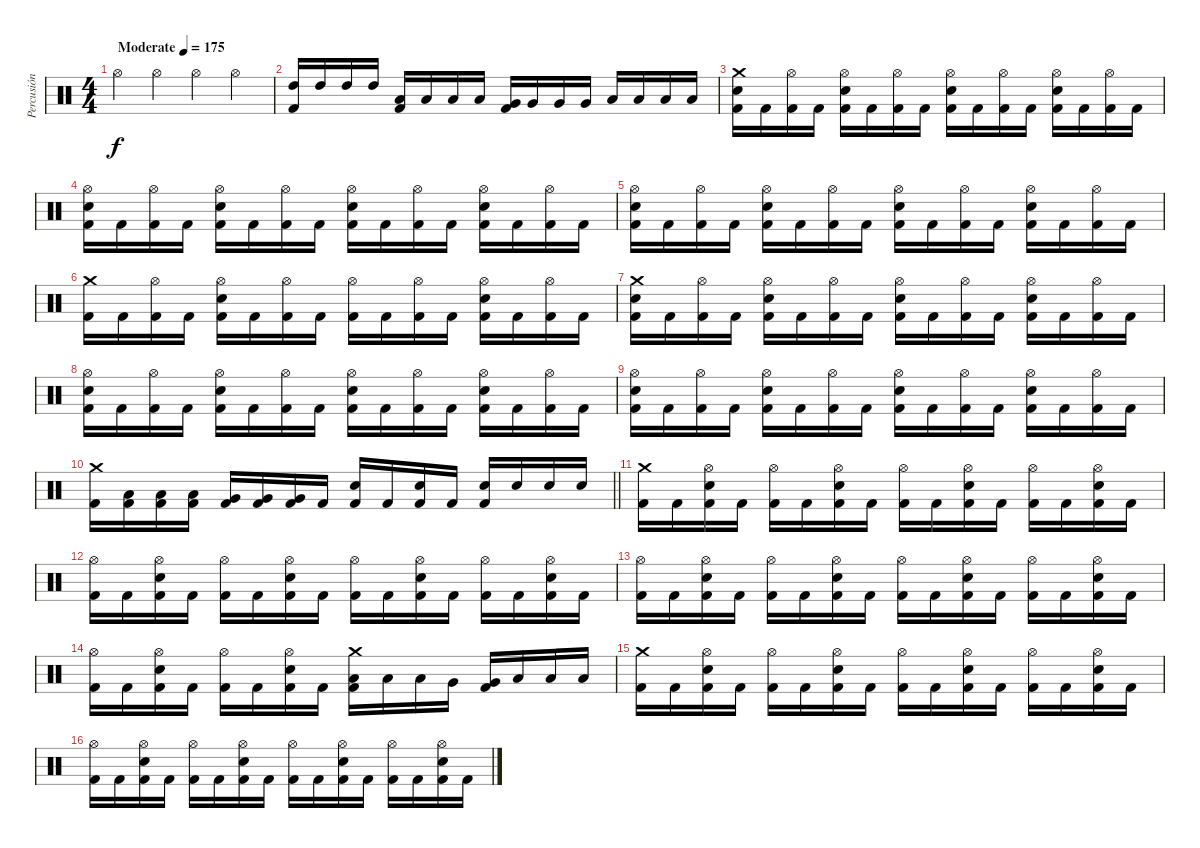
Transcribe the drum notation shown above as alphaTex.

\track ("Percusión" "Percusión") {instrument percussion}
\staff {score}
\articulation defaults
\ts (4 4)
\tempo (175 "Moderate")
\clef neutral
\ks c "Hi-Hat (open)".4{dy f} "Hi-Hat (open)".4 "Hi-Hat (open)".4 "Hi-Hat (open)".4
|
("High Tom (hit)" "Kick (hit) 2").16 "High Tom (hit)".16 "High Tom (hit)".16 "High Tom (hit)".16 ("Low Tom (hit)" "Kick (hit) 2").16 "Low Tom (hit)".16 "Low Tom (hit)".16 "Low Tom (hit)".16 ("Very Low Tom (hit)" "Kick (hit) 2").16 "Very Low Tom (hit)".16 "Very Low Tom (hit)".16 "Very Low Tom (hit)".16 "Low Floor Tom (hit)".16 "Low Floor Tom (hit)".16 "Low Floor Tom (hit)".16 "Low Floor Tom (hit)".16 |
("Crash medium (hit)" "Electric Snare (hit)" "Kick (hit) 2").16 "Kick (hit) 2".16 ("Hi-Hat (open)" "Kick (hit) 2").16 "Kick (hit) 2".16 ("Hi-Hat (open)" "Electric Snare (hit)" "Kick (hit) 2").16 "Kick (hit) 2".16 ("Hi-Hat (open)" "Kick (hit) 2").16 "Kick (hit) 2".16 ("Hi-Hat (open)" "Electric Snare (hit)" "Kick (hit) 2").16 "Kick (hit) 2".16 ("Hi-Hat (open)" "Kick (hit) 2").16 "Kick (hit) 2".16 ("Hi-Hat (open)" "Electric Snare (hit)" "Kick (hit) 2").16 "Kick (hit) 2".16 ("Hi-Hat (open)" "Kick (hit) 2").16 "Kick (hit) 2".16 |
("Hi-Hat (open)" "Electric Snare (hit)" "Kick (hit) 2").16 "Kick (hit) 2".16 ("Hi-Hat (open)" "Kick (hit) 2").16 "Kick (hit) 2".16 ("Hi-Hat (open)" "Electric Snare (hit)" "Kick (hit) 2").16 "Kick (hit) 2".16 ("Hi-Hat (open)" "Kick (hit) 2").16 "Kick (hit) 2".16 ("Hi-Hat (open)" "Electric Snare (hit)" "Kick (hit) 2").16 "Kick (hit) 2".16 ("Hi-Hat (open)" "Kick (hit) 2").16 "Kick (hit) 2".16 ("Hi-Hat (open)" "Electric Snare (hit)" "Kick (hit) 2").16 "Kick (hit) 2".16 ("Hi-Hat (open)" "Kick (hit) 2").16 "Kick (hit) 2".16 |
("Hi-Hat (open)" "Electric Snare (hit)" "Kick (hit) 2").16 "Kick (hit) 2".16 ("Hi-Hat (open)" "Kick (hit) 2").16 "Kick (hit) 2".16 ("Hi-Hat (open)" "Electric Snare (hit)" "Kick (hit) 2").16 "Kick (hit) 2".16 ("Hi-Hat (open)" "Kick (hit) 2").16 "Kick (hit) 2".16 ("Hi-Hat (open)" "Electric Snare (hit)" "Kick (hit) 2").16 "Kick (hit) 2".16 ("Hi-Hat (open)" "Kick (hit) 2").16 "Kick (hit) 2".16 ("Hi-Hat (open)" "Electric Snare (hit)" "Kick (hit) 2").16 "Kick (hit) 2".16 ("Hi-Hat (open)" "Kick (hit) 2").16 "Kick (hit) 2".16 |
("Crash medium (hit)" "Kick (hit) 2").16 "Kick (hit) 2".16 ("Hi-Hat (open)" "Kick (hit) 2").16 "Kick (hit) 2".16 ("Hi-Hat (open)" "Electric Snare (hit)" "Kick (hit) 2").16 "Kick (hit) 2".16 ("Hi-Hat (open)" "Kick (hit) 2").16 "Kick (hit) 2".16 ("Hi-Hat (open)" "Kick (hit) 2").16 "Kick (hit) 2".16 ("Hi-Hat (open)" "Kick (hit) 2").16 "Kick (hit) 2".16 ("Hi-Hat (open)" "Electric Snare (hit)" "Kick (hit) 2").16 "Kick (hit) 2".16 ("Hi-Hat (open)" "Kick (hit) 2").16 "Kick (hit) 2".16 |
("Crash medium (hit)" "Electric Snare (hit)" "Kick (hit) 2").16 "Kick (hit) 2".16 ("Hi-Hat (open)" "Kick (hit) 2").16 "Kick (hit) 2".16 ("Hi-Hat (open)" "Electric Snare (hit)" "Kick (hit) 2").16 "Kick (hit) 2".16 ("Hi-Hat (open)" "Kick (hit) 2").16 "Kick (hit) 2".16 ("Hi-Hat (open)" "Electric Snare (hit)" "Kick (hit) 2").16 "Kick (hit) 2".16 ("Hi-Hat (open)" "Kick (hit) 2").16 "Kick (hit) 2".16 ("Hi-Hat (open)" "Electric Snare (hit)" "Kick (hit) 2").16 "Kick (hit) 2".16 ("Hi-Hat (open)" "Kick (hit) 2").16 "Kick (hit) 2".16 |
("Hi-Hat (open)" "Electric Snare (hit)" "Kick (hit) 2").16 "Kick (hit) 2".16 ("Hi-Hat (open)" "Kick (hit) 2").16 "Kick (hit) 2".16 ("Hi-Hat (open)" "Electric Snare (hit)" "Kick (hit) 2").16 "Kick (hit) 2".16 ("Hi-Hat (open)" "Kick (hit) 2").16 "Kick (hit) 2".16 ("Hi-Hat (open)" "Electric Snare (hit)" "Kick (hit) 2").16 "Kick (hit) 2".16 ("Hi-Hat (open)" "Kick (hit) 2").16 "Kick (hit) 2".16 ("Hi-Hat (open)" "Electric Snare (hit)" "Kick (hit) 2").16 "Kick (hit) 2".16 ("Hi-Hat (open)" "Kick (hit) 2").16 "Kick (hit) 2".16 |
("Hi-Hat (open)" "Electric Snare (hit)" "Kick (hit) 2").16 "Kick (hit) 2".16 ("Hi-Hat (open)" "Kick (hit) 2").16 "Kick (hit) 2".16 ("Hi-Hat (open)" "Electric Snare (hit)" "Kick (hit) 2").16 "Kick (hit) 2".16 ("Hi-Hat (open)" "Kick (hit) 2").16 "Kick (hit) 2".16 ("Hi-Hat (open)" "Electric Snare (hit)" "Kick (hit) 2").16 "Kick (hit) 2".16 ("Hi-Hat (open)" "Kick (hit) 2").16 "Kick (hit) 2".16 ("Hi-Hat (open)" "Electric Snare (hit)" "Kick (hit) 2").16 "Kick (hit) 2".16 ("Hi-Hat (open)" "Kick (hit) 2").16 "Kick (hit) 2".16 |
\barLineRight lightlight
("Crash medium (hit)" "Kick (hit) 2").16 ("Low Tom (hit)" "Kick (hit) 2").16 ("Low Tom (hit)" "Kick (hit) 2").16 ("Low Tom (hit)" "Kick (hit) 2").16 ("Very Low Tom (hit)" "Kick (hit) 2").16 ("Very Low Tom (hit)" "Kick (hit) 2").16 ("Very Low Tom (hit)" "Kick (hit) 2").16 "Kick (hit) 2".16 ("Electric Snare (hit)" "Kick (hit) 2").16 "Kick (hit) 2".16 ("Electric Snare (hit)" "Kick (hit) 2").16 "Kick (hit) 2".16 ("Electric Snare (hit)" "Kick (hit) 2").16 "Electric Snare (hit)".16 "Electric Snare (hit)".16 "Electric Snare (hit)".16 |
("Crash medium (hit)" "Kick (hit) 2").16 "Kick (hit) 2".16 ("Hi-Hat (open)" "Electric Snare (hit)" "Kick (hit) 2").16 "Kick (hit) 2".16 ("Hi-Hat (open)" "Kick (hit) 2").16 "Kick (hit) 2".16 ("Hi-Hat (open)" "Electric Snare (hit)" "Kick (hit) 2").16 "Kick (hit) 2".16 ("Hi-Hat (open)" "Kick (hit) 2").16 "Kick (hit) 2".16 ("Hi-Hat (open)" "Electric Snare (hit)" "Kick (hit) 2").16 "Kick (hit) 2".16 ("Hi-Hat (open)" "Kick (hit) 2").16 "Kick (hit) 2".16 ("Hi-Hat (open)" "Electric Snare (hit)" "Kick (hit) 2").16 "Kick (hit) 2".16 |
("Hi-Hat (open)" "Kick (hit) 2").16 "Kick (hit) 2".16 ("Hi-Hat (open)" "Electric Snare (hit)" "Kick (hit) 2").16 "Kick (hit) 2".16 ("Hi-Hat (open)" "Kick (hit) 2").16 "Kick (hit) 2".16 ("Hi-Hat (open)" "Electric Snare (hit)" "Kick (hit) 2").16 "Kick (hit) 2".16 ("Hi-Hat (open)" "Kick (hit) 2").16 "Kick (hit) 2".16 ("Hi-Hat (open)" "Electric Snare (hit)" "Kick (hit) 2").16 "Kick (hit) 2".16 ("Hi-Hat (open)" "Kick (hit) 2").16 "Kick (hit) 2".16 ("Hi-Hat (open)" "Electric Snare (hit)" "Kick (hit) 2").16 "Kick (hit) 2".16 |
("Hi-Hat (open)" "Kick (hit) 2").16 "Kick (hit) 2".16 ("Hi-Hat (open)" "Electric Snare (hit)" "Kick (hit) 2").16 "Kick (hit) 2".16 ("Hi-Hat (open)" "Kick (hit) 2").16 "Kick (hit) 2".16 ("Hi-Hat (open)" "Electric Snare (hit)" "Kick (hit) 2").16 "Kick (hit) 2".16 ("Hi-Hat (open)" "Kick (hit) 2").16 "Kick (hit) 2".16 ("Hi-Hat (open)" "Electric Snare (hit)" "Kick (hit) 2").16 "Kick (hit) 2".16 ("Hi-Hat (open)" "Kick (hit) 2").16 "Kick (hit) 2".16 ("Hi-Hat (open)" "Electric Snare (hit)" "Kick (hit) 2").16 "Kick (hit) 2".16 |
("Hi-Hat (open)" "Kick (hit) 2").16 "Kick (hit) 2".16 ("Hi-Hat (open)" "Electric Snare (hit)" "Kick (hit) 2").16 "Kick (hit) 2".16 ("Hi-Hat (open)" "Kick (hit) 2").16 "Kick (hit) 2".16 ("Hi-Hat (open)" "Electric Snare (hit)" "Kick (hit) 2").16 "Kick (hit) 2".16 ("Crash medium (hit)" "Low Tom (hit)" "Kick (hit) 2").16 "Low Tom (hit)".16 "Low Tom (hit)".16 "Very Low Tom (hit)".16 ("Very Low Tom (hit)" "Kick (hit) 2").16 "Low Floor Tom (hit)".16 "Low Floor Tom (hit)".16 "Low Floor Tom (hit)".16 |
("Crash medium (hit)" "Kick (hit) 2").16 "Kick (hit) 2".16 ("Hi-Hat (open)" "Electric Snare (hit)" "Kick (hit) 2").16 "Kick (hit) 2".16 ("Hi-Hat (open)" "Kick (hit) 2").16 "Kick (hit) 2".16 ("Hi-Hat (open)" "Electric Snare (hit)" "Kick (hit) 2").16 "Kick (hit) 2".16 ("Hi-Hat (open)" "Kick (hit) 2").16 "Kick (hit) 2".16 ("Hi-Hat (open)" "Electric Snare (hit)" "Kick (hit) 2").16 "Kick (hit) 2".16 ("Hi-Hat (open)" "Kick (hit) 2").16 "Kick (hit) 2".16 ("Hi-Hat (open)" "Electric Snare (hit)" "Kick (hit) 2").16 "Kick (hit) 2".16 |
("Hi-Hat (open)" "Kick (hit) 2").16 "Kick (hit) 2".16 ("Hi-Hat (open)" "Electric Snare (hit)" "Kick (hit) 2").16 "Kick (hit) 2".16 ("Hi-Hat (open)" "Kick (hit) 2").16 "Kick (hit) 2".16 ("Hi-Hat (open)" "Electric Snare (hit)" "Kick (hit) 2").16 "Kick (hit) 2".16 ("Hi-Hat (open)" "Kick (hit) 2").16 "Kick (hit) 2".16 ("Hi-Hat (open)" "Electric Snare (hit)" "Kick (hit) 2").16 "Kick (hit) 2".16 ("Hi-Hat (open)" "Kick (hit) 2").16 "Kick (hit) 2".16 ("Hi-Hat (open)" "Electric Snare (hit)" "Kick (hit) 2").16 "Kick (hit) 2".16
